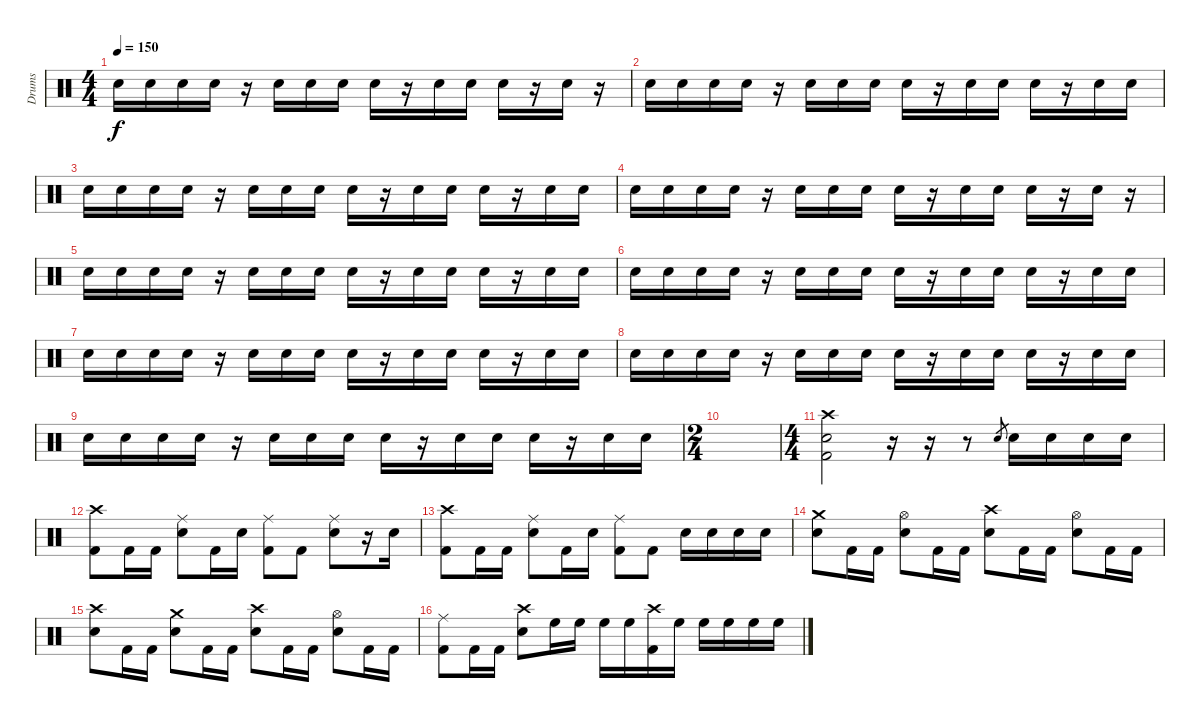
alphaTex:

\track ("Drums" "Drums") {instrument percussion}
\staff {score}
\articulation defaults
\ts (4 4)
\tempo 150
\clef neutral
\ks c "Snare (hit) 2".16{dy f} "Snare (hit) 2".16 "Snare (hit) 2".16 "Snare (hit) 2".16
r.16 "Snare (hit) 2".16 "Snare (hit) 2".16 "Snare (hit) 2".16 "Snare (hit) 2".16 r.16 "Snare (hit) 2".16 "Snare (hit) 2".16 "Snare (hit) 2".16 r.16 "Snare (hit) 2".16 r.16 |
"Snare (hit) 2".16 "Snare (hit) 2".16 "Snare (hit) 2".16 "Snare (hit) 2".16 r.16 "Snare (hit) 2".16 "Snare (hit) 2".16 "Snare (hit) 2".16 "Snare (hit) 2".16 r.16 "Snare (hit) 2".16 "Snare (hit) 2".16 "Snare (hit) 2".16 r.16 "Snare (hit) 2".16 "Snare (hit) 2".16 |
"Snare (hit) 2".16 "Snare (hit) 2".16 "Snare (hit) 2".16 "Snare (hit) 2".16 r.16 "Snare (hit) 2".16 "Snare (hit) 2".16 "Snare (hit) 2".16 "Snare (hit) 2".16 r.16 "Snare (hit) 2".16 "Snare (hit) 2".16 "Snare (hit) 2".16 r.16 "Snare (hit) 2".16 "Snare (hit) 2".16 |
"Snare (hit) 2".16 "Snare (hit) 2".16 "Snare (hit) 2".16 "Snare (hit) 2".16 r.16 "Snare (hit) 2".16 "Snare (hit) 2".16 "Snare (hit) 2".16 "Snare (hit) 2".16 r.16 "Snare (hit) 2".16 "Snare (hit) 2".16 "Snare (hit) 2".16 r.16 "Snare (hit) 2".16 r.16 |
"Snare (hit) 2".16 "Snare (hit) 2".16 "Snare (hit) 2".16 "Snare (hit) 2".16 r.16 "Snare (hit) 2".16 "Snare (hit) 2".16 "Snare (hit) 2".16 "Snare (hit) 2".16 r.16 "Snare (hit) 2".16 "Snare (hit) 2".16 "Snare (hit) 2".16 r.16 "Snare (hit) 2".16 "Snare (hit) 2".16 |
"Snare (hit) 2".16 "Snare (hit) 2".16 "Snare (hit) 2".16 "Snare (hit) 2".16 r.16 "Snare (hit) 2".16 "Snare (hit) 2".16 "Snare (hit) 2".16 "Snare (hit) 2".16 r.16 "Snare (hit) 2".16 "Snare (hit) 2".16 "Snare (hit) 2".16 r.16 "Snare (hit) 2".16 "Snare (hit) 2".16 |
"Snare (hit) 2".16 "Snare (hit) 2".16 "Snare (hit) 2".16 "Snare (hit) 2".16 r.16 "Snare (hit) 2".16 "Snare (hit) 2".16 "Snare (hit) 2".16 "Snare (hit) 2".16 r.16 "Snare (hit) 2".16 "Snare (hit) 2".16 "Snare (hit) 2".16 r.16 "Snare (hit) 2".16 "Snare (hit) 2".16 |
"Snare (hit) 2".16 "Snare (hit) 2".16 "Snare (hit) 2".16 "Snare (hit) 2".16 r.16 "Snare (hit) 2".16 "Snare (hit) 2".16 "Snare (hit) 2".16 "Snare (hit) 2".16 r.16 "Snare (hit) 2".16 "Snare (hit) 2".16 "Snare (hit) 2".16 r.16 "Snare (hit) 2".16 "Snare (hit) 2".16 |
"Snare (hit) 2".16 "Snare (hit) 2".16 "Snare (hit) 2".16 "Snare (hit) 2".16 r.16 "Snare (hit) 2".16 "Snare (hit) 2".16 "Snare (hit) 2".16 "Snare (hit) 2".16 r.16 "Snare (hit) 2".16 "Snare (hit) 2".16 "Snare (hit) 2".16 r.16 "Snare (hit) 2".16 "Snare (hit) 2".16 |
\ts (2 4)
|
\ts (4 4)
("Kick (hit) 2" "Snare (hit) 2" "Crash high (hit)").2 r.16 r.16 r.8 "Snare (hit) 2".8{gr} "Snare (hit) 2".16 "Snare (hit) 2".16 "Snare (hit) 2".16 "Snare (hit) 2".16 |
("Crash high (hit)" "Kick (hit) 2").8 "Kick (hit) 2".16 "Kick (hit) 2".16 ("Ride (middle)" "Snare (hit) 2").8 "Kick (hit) 2".16 "Snare (hit) 2".16 ("Ride (middle)" "Kick (hit) 2").8 "Kick (hit) 2".8 ("Ride (middle)" "Snare (hit) 2").8 r.16 "Snare (hit) 2".16 |
("Crash high (hit)" "Kick (hit) 2").8 "Kick (hit) 2".16 "Kick (hit) 2".16 ("Ride (middle)" "Snare (hit) 2").8 "Kick (hit) 2".16 "Snare (hit) 2".16 ("Ride (middle)" "Kick (hit) 2").8 "Kick (hit) 2".8 "Snare (hit) 2".16 "Snare (hit) 2".16 "Snare (hit) 2".16 "Snare (hit) 2".16 |
("Crash medium (hit)" "Snare (hit) 2").8 "Kick (hit) 2".16 "Kick (hit) 2".16 ("Hi-Hat (open)" "Snare (hit) 2").8 "Kick (hit) 2".16 "Kick (hit) 2".16 ("Crash high (hit)" "Snare (hit) 2").8 "Kick (hit) 2".16 "Kick (hit) 2".16 ("Hi-Hat (open)" "Snare (hit) 2").8 "Kick (hit) 2".16 "Kick (hit) 2".16 |
("Crash high (hit)" "Snare (hit) 2").8 "Kick (hit) 2".16 "Kick (hit) 2".16 ("Crash medium (hit)" "Snare (hit) 2").8 "Kick (hit) 2".16 "Kick (hit) 2".16 ("Crash high (hit)" "Snare (hit) 2").8 "Kick (hit) 2".16 "Kick (hit) 2".16 ("Hi-Hat (open)" "Snare (hit) 2").8 "Kick (hit) 2".16 "Kick (hit) 2".16 |
("Ride (middle)" "Kick (hit) 2").8 "Kick (hit) 2".16 "Kick (hit) 2".16 ("Crash high (hit)" "Snare (hit) 2").8 "High Floor Tom (hit)".16 "High Floor Tom (hit)".16 "High Floor Tom (hit)".16 "High Floor Tom (hit)".16 ("Crash high (hit)" "Kick (hit) 2").16 "High Floor Tom (hit)".16 "High Floor Tom (hit)".16 "High Floor Tom (hit)".16 "High Floor Tom (hit)".16 "High Floor Tom (hit)".16
